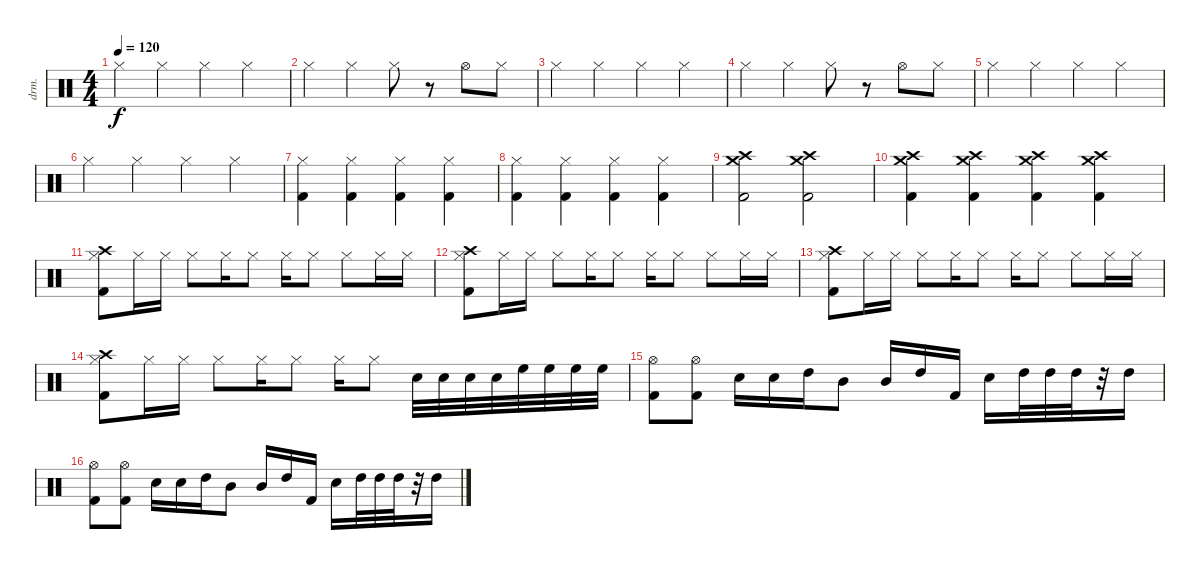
\defaultSystemsLayout 4
\bracketExtendMode groupsimilarinstruments
\otherSystemsTrackNameOrientation horizontal
\track ("Drumkit" "drm.") {instrument percussion}
\staff {score}
\articulation defaults
\ts (4 4)
\tempo 120
\clef neutral
\ks c "Hi-Hat (closed)".4{dy f beam Down} "Hi-Hat (closed)".4{beam Down} "Hi-Hat (closed)".4{beam Down} "Hi-Hat (closed)".4{beam Down}
|
"Hi-Hat (closed)".4{beam Down} "Hi-Hat (closed)".4{beam Down} "Hi-Hat (closed)".8{beam Down} r.8{beam Down} "Hi-Hat (open)".8{beam Down} "Hi-Hat (closed)".8{beam Down} |
"Hi-Hat (closed)".4{beam Down} "Hi-Hat (closed)".4{beam Down} "Hi-Hat (closed)".4{beam Down} "Hi-Hat (closed)".4{beam Down} |
"Hi-Hat (closed)".4{beam Down} "Hi-Hat (closed)".4{beam Down} "Hi-Hat (closed)".8{beam Down} r.8{beam Down} "Hi-Hat (open)".8{beam Down} "Hi-Hat (closed)".8{beam Down} |
"Hi-Hat (closed)".4{beam Down} "Hi-Hat (closed)".4{beam Down} "Hi-Hat (closed)".4{beam Down} "Hi-Hat (closed)".4{beam Down} |
"Hi-Hat (closed)".4{beam Down} "Hi-Hat (closed)".4{beam Down} "Hi-Hat (closed)".4{beam Down} "Hi-Hat (closed)".4{beam Down} |
("Hi-Hat (closed)" "Kick (hit) 2").4{beam Down} ("Hi-Hat (closed)" "Kick (hit) 2").4{beam Down} ("Hi-Hat (closed)" "Kick (hit) 2").4{beam Down} ("Hi-Hat (closed)" "Kick (hit) 2").4{beam Down} |
("Hi-Hat (closed)" "Kick (hit) 2").4{beam Down} ("Hi-Hat (closed)" "Kick (hit) 2").4{beam Down} ("Hi-Hat (closed)" "Kick (hit) 2").4{beam Down} ("Hi-Hat (closed)" "Kick (hit) 2").4{beam Down} |
("Crash high (hit)" "Crash medium (hit)" "Kick (hit) 2").2{beam Down} ("Crash high (hit)" "Crash medium (hit)" "Kick (hit) 2").2{beam Down} |
("Crash high (hit)" "Crash medium (hit)" "Kick (hit) 2").4{beam Down} ("Crash high (hit)" "Crash medium (hit)" "Kick (hit) 2").4{beam Down} ("Crash high (hit)" "Crash medium (hit)" "Kick (hit) 2").4{beam Down} ("Crash high (hit)" "Crash medium (hit)" "Kick (hit) 2").4{beam Down} |
("Hi-Hat (closed)" "Crash high (hit)" "Kick (hit) 2").8{beam Down} "Hi-Hat (closed)".16{beam Down} "Hi-Hat (closed)".16{beam Down} "Hi-Hat (closed)".8{beam Down} "Hi-Hat (closed)".16{beam Down} "Hi-Hat (closed)".8{beam Down} "Hi-Hat (closed)".16{beam Down} "Hi-Hat (closed)".8{beam Down} "Hi-Hat (closed)".8{beam Down} "Hi-Hat (closed)".16{beam Down} "Hi-Hat (closed)".16{beam Down} |
("Hi-Hat (closed)" "Crash high (hit)" "Kick (hit) 2").8{beam Down} "Hi-Hat (closed)".16{beam Down} "Hi-Hat (closed)".16{beam Down} "Hi-Hat (closed)".8{beam Down} "Hi-Hat (closed)".16{beam Down} "Hi-Hat (closed)".8{beam Down} "Hi-Hat (closed)".16{beam Down} "Hi-Hat (closed)".8{beam Down} "Hi-Hat (closed)".8{beam Down} "Hi-Hat (closed)".16{beam Down} "Hi-Hat (closed)".16{beam Down} |
("Hi-Hat (closed)" "Crash high (hit)" "Kick (hit) 2").8{beam Down} "Hi-Hat (closed)".16{beam Down} "Hi-Hat (closed)".16{beam Down} "Hi-Hat (closed)".8{beam Down} "Hi-Hat (closed)".16{beam Down} "Hi-Hat (closed)".8{beam Down} "Hi-Hat (closed)".16{beam Down} "Hi-Hat (closed)".8{beam Down} "Hi-Hat (closed)".8{beam Down} "Hi-Hat (closed)".16{beam Down} "Hi-Hat (closed)".16{beam Down} |
("Hi-Hat (closed)" "Crash high (hit)" "Kick (hit) 2").8{beam Down} "Hi-Hat (closed)".16{beam Down} "Hi-Hat (closed)".16{beam Down} "Hi-Hat (closed)".8{beam Down} "Hi-Hat (closed)".16{beam Down} "Hi-Hat (closed)".8{beam Down} "Hi-Hat (closed)".16{beam Down} "Hi-Hat (closed)".8{beam Down} "Snare (hit) 2".32{beam Down} "Snare (hit) 2".32{beam Down} "Snare (hit) 2".32{beam Down} "Snare (hit) 2".32{beam Down} "High Floor Tom (hit)".32{beam Down} "High Floor Tom (hit)".32{beam Down} "High Floor Tom (hit)".32{beam Down} "High Floor Tom (hit)".32{beam Down} |
("Kick (hit) 2" "Hi-Hat (open)").8{beam Down} ("Hi-Hat (open)" "Kick (hit) 2").8{beam Down} "Snare (hit) 2".16{beam Down} "Snare (hit) 2".16{beam Down} "High Tom (hit)".16{beam Down} "Mid Tom (hit)".8{beam Down} "Mid Tom (hit)".16{beam Up} "High Tom (hit)".16{beam Up} "Kick (hit) 2".16{beam Up} "Snare (hit) 2".16{beam Down} "High Tom (hit)".32{beam Down} "High Tom (hit)".32{beam Down} "High Tom (hit)".32{beam Down} r.32{beam Down} "High Tom (hit)".16{beam Down} |
("Kick (hit) 2" "Hi-Hat (open)").8{beam Down} ("Hi-Hat (open)" "Kick (hit) 2").8{beam Down} "Snare (hit) 2".16{beam Down} "Snare (hit) 2".16{beam Down} "High Tom (hit)".16{beam Down} "Mid Tom (hit)".8{beam Down} "Mid Tom (hit)".16{beam Up} "High Tom (hit)".16{beam Up} "Kick (hit) 2".16{beam Up} "Snare (hit) 2".16{beam Down} "High Tom (hit)".32{beam Down} "High Tom (hit)".32{beam Down} "High Tom (hit)".32{beam Down} r.32{beam Down} "High Tom (hit)".16{beam Down}
